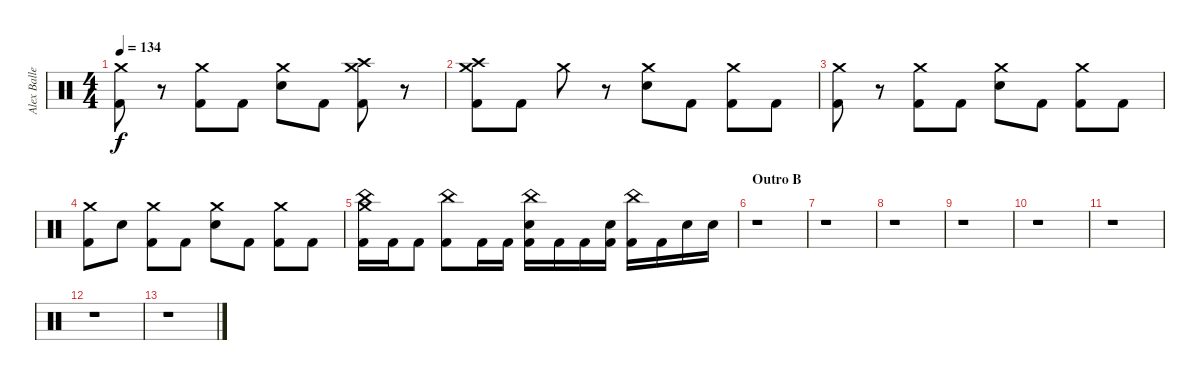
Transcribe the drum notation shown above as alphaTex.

\track ("Alex Ballew" "Alex Balle") {instrument percussion}
\staff {score}
\articulation defaults
\ts (4 4)
\tempo 134
\clef neutral
\ks c
("Crash medium (hit)" "Kick (hit) 2").8{dy f} r.8 ("Crash medium (hit)" "Kick (hit) 2").8 "Kick (hit) 2".8 ("Crash medium (hit)" "Electric Snare (hit)").8 "Kick (hit) 2".8 ("Crash medium (hit)" "Crash high (hit)" "Kick (hit) 2").8 r.8 |
("Crash medium (hit)" "Crash high (hit)" "Kick (hit) 2").8 "Kick (hit) 2".8 "Crash medium (hit)".8 r.8 ("Crash medium (hit)" "Electric Snare (hit)").8 "Kick (hit) 2".8 ("Crash medium (hit)" "Kick (hit) 2").8 "Kick (hit) 2".8 |
("Crash medium (hit)" "Kick (hit) 2").8 r.8 ("Crash medium (hit)" "Kick (hit) 2").8 "Kick (hit) 2".8 ("Crash medium (hit)" "Electric Snare (hit)").8 "Kick (hit) 2".8 ("Crash medium (hit)" "Kick (hit) 2").8 "Kick (hit) 2".8 |
("Crash medium (hit)" "Kick (hit) 2").8 "Electric Snare (hit)".8 ("Crash medium (hit)" "Kick (hit) 2").8 "Kick (hit) 2".8 ("Crash medium (hit)" "Electric Snare (hit)").8 "Kick (hit) 2".8 ("Crash medium (hit)" "Kick (hit) 2").8 "Kick (hit) 2".8 |
("China (hit)" "Crash medium (hit)" "Kick (hit) 2").16 "Kick (hit) 2".16 "Kick (hit) 2".8 ("China (hit)" "Kick (hit) 2").8 "Kick (hit) 2".16 "Kick (hit) 2".16 ("China (hit)" "Electric Snare (hit)" "Kick (hit) 2").16 "Kick (hit) 2".16 "Kick (hit) 2".16 ("Electric Snare (hit)" "Kick (hit) 2").16 ("China (hit)" "Kick (hit) 2").16 "Kick (hit) 2".16 "Electric Snare (hit)".16 "Electric Snare (hit)".16 |
\section ("" "Outro B")
r.1 |
r.1 |
r.1 |
r.1 |
r.1 |
r.1 |
r.1 |
r.1
